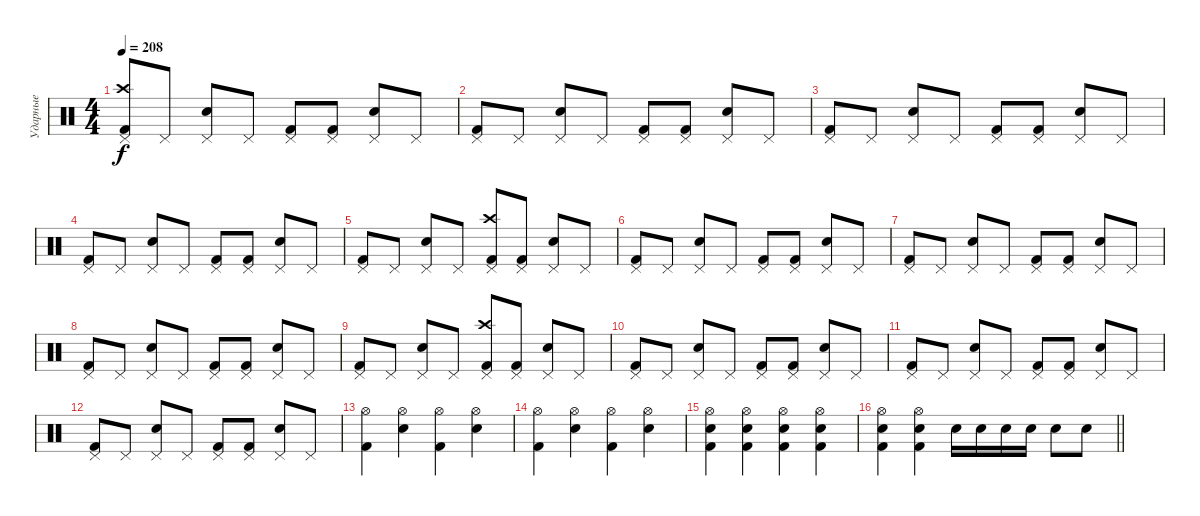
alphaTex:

\track ("Ударные" "Ударные") {instrument percussion}
\staff {score}
\articulation defaults
\ts (4 4)
\tempo 208
\clef neutral
\ks c
("Pedal Hi-Hat (hit)" "Crash high (hit)" "Kick (hit) 2").8{dy f} "Pedal Hi-Hat (hit)".8 ("Pedal Hi-Hat (hit)" "Electric Snare (hit)").8 "Pedal Hi-Hat (hit)".8 ("Pedal Hi-Hat (hit)" "Kick (hit) 2").8 ("Pedal Hi-Hat (hit)" "Kick (hit) 2").8 ("Pedal Hi-Hat (hit)" "Electric Snare (hit)").8 "Pedal Hi-Hat (hit)".8 |
("Pedal Hi-Hat (hit)" "Kick (hit) 2").8 "Pedal Hi-Hat (hit)".8 ("Pedal Hi-Hat (hit)" "Electric Snare (hit)").8 "Pedal Hi-Hat (hit)".8 ("Pedal Hi-Hat (hit)" "Kick (hit) 2").8 ("Pedal Hi-Hat (hit)" "Kick (hit) 2").8 ("Pedal Hi-Hat (hit)" "Electric Snare (hit)").8 "Pedal Hi-Hat (hit)".8 |
("Pedal Hi-Hat (hit)" "Kick (hit) 2").8 "Pedal Hi-Hat (hit)".8 ("Pedal Hi-Hat (hit)" "Electric Snare (hit)").8 "Pedal Hi-Hat (hit)".8 ("Pedal Hi-Hat (hit)" "Kick (hit) 2").8 ("Pedal Hi-Hat (hit)" "Kick (hit) 2").8 ("Pedal Hi-Hat (hit)" "Electric Snare (hit)").8 "Pedal Hi-Hat (hit)".8 |
("Pedal Hi-Hat (hit)" "Kick (hit) 2").8 "Pedal Hi-Hat (hit)".8 ("Pedal Hi-Hat (hit)" "Electric Snare (hit)").8 "Pedal Hi-Hat (hit)".8 ("Pedal Hi-Hat (hit)" "Kick (hit) 2").8 ("Pedal Hi-Hat (hit)" "Kick (hit) 2").8 ("Pedal Hi-Hat (hit)" "Electric Snare (hit)").8 "Pedal Hi-Hat (hit)".8 |
("Pedal Hi-Hat (hit)" "Kick (hit) 2").8 "Pedal Hi-Hat (hit)".8 ("Pedal Hi-Hat (hit)" "Electric Snare (hit)").8 "Pedal Hi-Hat (hit)".8 ("Pedal Hi-Hat (hit)" "Crash high (hit)" "Kick (hit) 2").8 ("Pedal Hi-Hat (hit)" "Kick (hit) 2").8 ("Pedal Hi-Hat (hit)" "Electric Snare (hit)").8 "Pedal Hi-Hat (hit)".8 |
("Pedal Hi-Hat (hit)" "Kick (hit) 2").8 "Pedal Hi-Hat (hit)".8 ("Pedal Hi-Hat (hit)" "Electric Snare (hit)").8 "Pedal Hi-Hat (hit)".8 ("Pedal Hi-Hat (hit)" "Kick (hit) 2").8 ("Pedal Hi-Hat (hit)" "Kick (hit) 2").8 ("Pedal Hi-Hat (hit)" "Electric Snare (hit)").8 "Pedal Hi-Hat (hit)".8 |
("Pedal Hi-Hat (hit)" "Kick (hit) 2").8 "Pedal Hi-Hat (hit)".8 ("Pedal Hi-Hat (hit)" "Electric Snare (hit)").8 "Pedal Hi-Hat (hit)".8 ("Pedal Hi-Hat (hit)" "Kick (hit) 2").8 ("Pedal Hi-Hat (hit)" "Kick (hit) 2").8 ("Pedal Hi-Hat (hit)" "Electric Snare (hit)").8 "Pedal Hi-Hat (hit)".8 |
("Pedal Hi-Hat (hit)" "Kick (hit) 2").8 "Pedal Hi-Hat (hit)".8 ("Pedal Hi-Hat (hit)" "Electric Snare (hit)").8 "Pedal Hi-Hat (hit)".8 ("Pedal Hi-Hat (hit)" "Kick (hit) 2").8 ("Pedal Hi-Hat (hit)" "Kick (hit) 2").8 ("Pedal Hi-Hat (hit)" "Electric Snare (hit)").8 "Pedal Hi-Hat (hit)".8 |
("Pedal Hi-Hat (hit)" "Kick (hit) 2").8 "Pedal Hi-Hat (hit)".8 ("Pedal Hi-Hat (hit)" "Electric Snare (hit)").8 "Pedal Hi-Hat (hit)".8 ("Pedal Hi-Hat (hit)" "Crash high (hit)" "Kick (hit) 2").8 ("Pedal Hi-Hat (hit)" "Kick (hit) 2").8 ("Pedal Hi-Hat (hit)" "Electric Snare (hit)").8 "Pedal Hi-Hat (hit)".8 |
("Pedal Hi-Hat (hit)" "Kick (hit) 2").8 "Pedal Hi-Hat (hit)".8 ("Pedal Hi-Hat (hit)" "Electric Snare (hit)").8 "Pedal Hi-Hat (hit)".8 ("Pedal Hi-Hat (hit)" "Kick (hit) 2").8 ("Pedal Hi-Hat (hit)" "Kick (hit) 2").8 ("Pedal Hi-Hat (hit)" "Electric Snare (hit)").8 "Pedal Hi-Hat (hit)".8 |
("Pedal Hi-Hat (hit)" "Kick (hit) 2").8 "Pedal Hi-Hat (hit)".8 ("Pedal Hi-Hat (hit)" "Electric Snare (hit)").8 "Pedal Hi-Hat (hit)".8 ("Pedal Hi-Hat (hit)" "Kick (hit) 2").8 ("Pedal Hi-Hat (hit)" "Kick (hit) 2").8 ("Pedal Hi-Hat (hit)" "Electric Snare (hit)").8 "Pedal Hi-Hat (hit)".8 |
("Pedal Hi-Hat (hit)" "Kick (hit) 2").8 "Pedal Hi-Hat (hit)".8 ("Pedal Hi-Hat (hit)" "Electric Snare (hit)").8 "Pedal Hi-Hat (hit)".8 ("Pedal Hi-Hat (hit)" "Kick (hit) 2").8 ("Pedal Hi-Hat (hit)" "Kick (hit) 2").8 ("Pedal Hi-Hat (hit)" "Electric Snare (hit)").8 "Pedal Hi-Hat (hit)".8 |
("Hi-Hat (open)" "Kick (hit) 2").4 ("Hi-Hat (open)" "Electric Snare (hit)").4 ("Kick (hit) 2" "Hi-Hat (open)").4 ("Electric Snare (hit)" "Hi-Hat (open)").4 |
("Hi-Hat (open)" "Kick (hit) 2").4 ("Hi-Hat (open)" "Electric Snare (hit)").4 ("Kick (hit) 2" "Hi-Hat (open)").4 ("Electric Snare (hit)" "Hi-Hat (open)").4 |
("Hi-Hat (open)" "Electric Snare (hit)" "Kick (hit) 2").4 ("Hi-Hat (open)" "Electric Snare (hit)" "Kick (hit) 2").4 ("Hi-Hat (open)" "Electric Snare (hit)" "Kick (hit) 2").4 ("Hi-Hat (open)" "Electric Snare (hit)" "Kick (hit) 2").4 |
\barLineRight lightlight
("Hi-Hat (open)" "Electric Snare (hit)" "Kick (hit) 2").4 ("Hi-Hat (open)" "Electric Snare (hit)" "Kick (hit) 2").4 "Electric Snare (hit)".16 "Electric Snare (hit)".16 "Electric Snare (hit)".16 "Electric Snare (hit)".16 "Electric Snare (hit)".8 "Electric Snare (hit)".8
